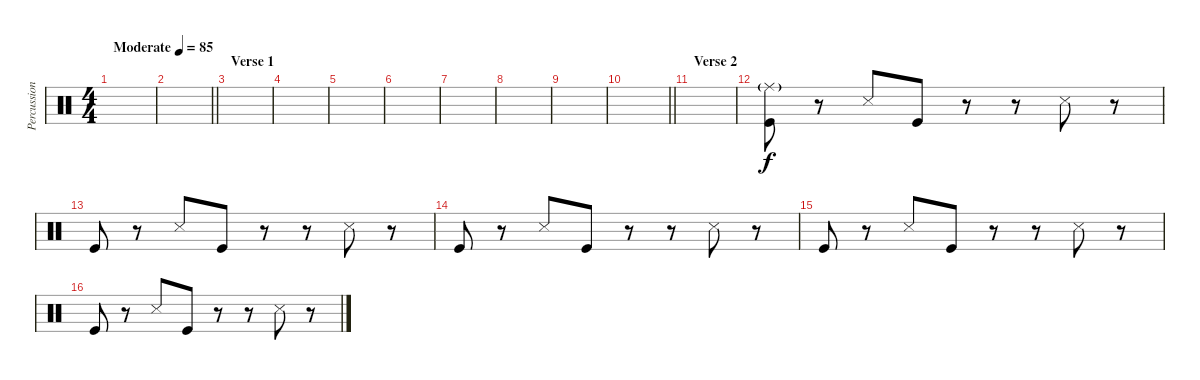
\track ("Percussion" "Percussion") {instrument percussion}
\staff {score}
\articulation defaults
\ts (4 4)
\tempo (85 "Moderate")
\clef neutral
\ks c
|
\barLineRight lightlight
|
\section ("" "Verse 1")
|
|
|
|
|
|
|
\barLineRight lightlight
|
\section ("" "Verse 2")
|
("Kick (hit)" "Ride (middle)"{g}).8 r.8 "Snare (side stick) 3".8{dy f} "Kick (hit)".8 r.8 r.8 "Snare (side stick) 3".8 r.8 |
"Kick (hit)".8 r.8 "Snare (side stick) 3".8 "Kick (hit)".8 r.8 r.8 "Snare (side stick) 3".8 r.8 |
"Kick (hit)".8 r.8 "Snare (side stick) 3".8 "Kick (hit)".8 r.8 r.8 "Snare (side stick) 3".8 r.8 |
"Kick (hit)".8 r.8 "Snare (side stick) 3".8 "Kick (hit)".8 r.8 r.8 "Snare (side stick) 3".8 r.8 |
"Kick (hit)".8 r.8 "Snare (side stick) 3".8 "Kick (hit)".8 r.8 r.8 "Snare (side stick) 3".8 r.8
